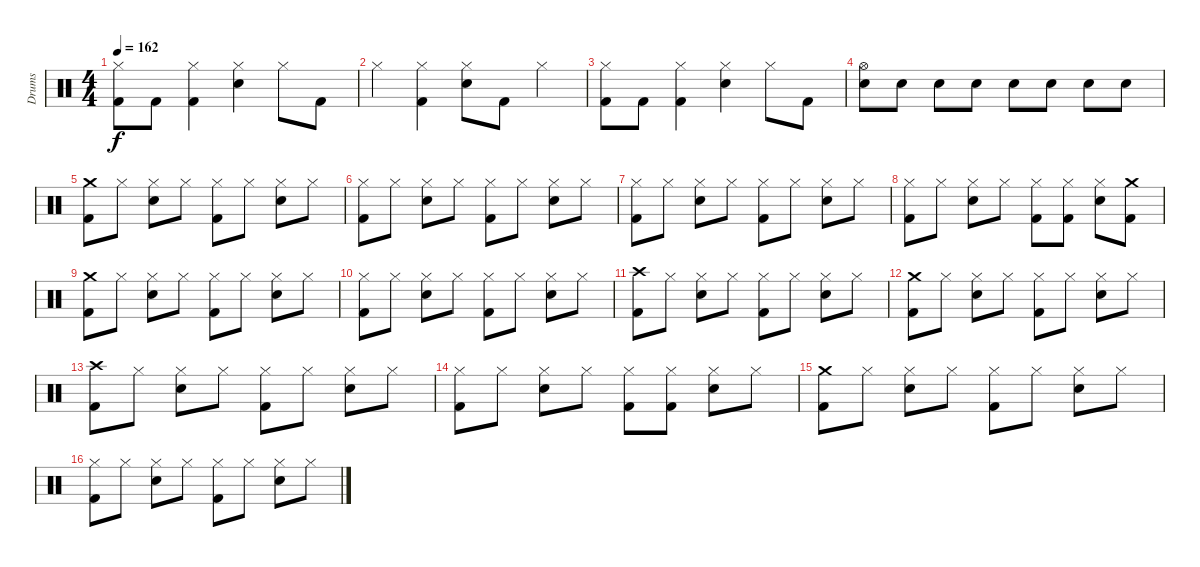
\track ("Drums" "Drums") {instrument percussion}
\staff {score}
\articulation defaults
\ts (4 4)
\tempo 162
\clef neutral
\ks c
("Hi-Hat (closed)" "Kick (hit) 2").8{dy f} "Kick (hit) 2".8 ("Hi-Hat (closed)" "Kick (hit) 2").4 ("Hi-Hat (closed)" "Electric Snare (hit)").4 "Hi-Hat (closed)".8 "Kick (hit) 2".8 |
"Hi-Hat (closed)".4 ("Hi-Hat (closed)" "Kick (hit) 2").4 ("Hi-Hat (closed)" "Electric Snare (hit)").8 "Kick (hit) 2".8 "Hi-Hat (closed)".4 |
("Hi-Hat (closed)" "Kick (hit) 2").8 "Kick (hit) 2".8 ("Hi-Hat (closed)" "Kick (hit) 2").4 ("Hi-Hat (closed)" "Electric Snare (hit)").4 "Hi-Hat (closed)".8 "Kick (hit) 2".8 |
("Hi-Hat (open)" "Electric Snare (hit)").8 "Electric Snare (hit)".8 "Electric Snare (hit)".8 "Electric Snare (hit)".8 "Electric Snare (hit)".8 "Electric Snare (hit)".8 "Electric Snare (hit)".8 "Electric Snare (hit)".8 |
("Crash medium (hit)" "Kick (hit) 2").8 "Hi-Hat (closed)".8 ("Hi-Hat (closed)" "Electric Snare (hit)").8 "Hi-Hat (closed)".8 ("Hi-Hat (closed)" "Kick (hit) 2").8 "Hi-Hat (closed)".8 ("Hi-Hat (closed)" "Electric Snare (hit)").8 "Hi-Hat (closed)".8 |
("Hi-Hat (closed)" "Kick (hit) 2").8 "Hi-Hat (closed)".8 ("Hi-Hat (closed)" "Electric Snare (hit)").8 "Hi-Hat (closed)".8 ("Hi-Hat (closed)" "Kick (hit) 2").8 "Hi-Hat (closed)".8 ("Hi-Hat (closed)" "Electric Snare (hit)").8 "Hi-Hat (closed)".8 |
("Hi-Hat (closed)" "Kick (hit) 2").8 "Hi-Hat (closed)".8 ("Hi-Hat (closed)" "Electric Snare (hit)").8 "Hi-Hat (closed)".8 ("Hi-Hat (closed)" "Kick (hit) 2").8 "Hi-Hat (closed)".8 ("Hi-Hat (closed)" "Electric Snare (hit)").8 "Hi-Hat (closed)".8 |
("Hi-Hat (closed)" "Kick (hit) 2").8 "Hi-Hat (closed)".8 ("Hi-Hat (closed)" "Electric Snare (hit)").8 "Hi-Hat (closed)".8 ("Hi-Hat (closed)" "Kick (hit) 2").8 ("Hi-Hat (closed)" "Kick (hit) 2").8 ("Hi-Hat (closed)" "Electric Snare (hit)").8 ("Crash medium (hit)" "Kick (hit) 2").8 |
("Crash medium (hit)" "Kick (hit) 2").8 "Hi-Hat (closed)".8 ("Hi-Hat (closed)" "Electric Snare (hit)").8 "Hi-Hat (closed)".8 ("Hi-Hat (closed)" "Kick (hit) 2").8 "Hi-Hat (closed)".8 ("Hi-Hat (closed)" "Electric Snare (hit)").8 "Hi-Hat (closed)".8 |
("Hi-Hat (closed)" "Kick (hit) 2").8 "Hi-Hat (closed)".8 ("Hi-Hat (closed)" "Electric Snare (hit)").8 "Hi-Hat (closed)".8 ("Hi-Hat (closed)" "Kick (hit) 2").8 "Hi-Hat (closed)".8 ("Hi-Hat (closed)" "Electric Snare (hit)").8 "Hi-Hat (closed)".8 |
("Crash high (hit)" "Kick (hit) 2").8 "Hi-Hat (closed)".8 ("Hi-Hat (closed)" "Electric Snare (hit)").8 "Hi-Hat (closed)".8 ("Hi-Hat (closed)" "Kick (hit) 2").8 "Hi-Hat (closed)".8 ("Hi-Hat (closed)" "Electric Snare (hit)").8 "Hi-Hat (closed)".8 |
("Crash medium (hit)" "Kick (hit) 2").8 "Hi-Hat (closed)".8 ("Hi-Hat (closed)" "Electric Snare (hit)").8 "Hi-Hat (closed)".8 ("Hi-Hat (closed)" "Kick (hit) 2").8 "Hi-Hat (closed)".8 ("Hi-Hat (closed)" "Electric Snare (hit)").8 "Hi-Hat (closed)".8 |
("Crash high (hit)" "Kick (hit) 2").8 "Hi-Hat (closed)".8 ("Hi-Hat (closed)" "Electric Snare (hit)").8 "Hi-Hat (closed)".8 ("Hi-Hat (closed)" "Kick (hit) 2").8 "Hi-Hat (closed)".8 ("Hi-Hat (closed)" "Electric Snare (hit)").8 "Hi-Hat (closed)".8 |
("Hi-Hat (closed)" "Kick (hit) 2").8 "Hi-Hat (closed)".8 ("Hi-Hat (closed)" "Electric Snare (hit)").8 "Hi-Hat (closed)".8 ("Hi-Hat (closed)" "Kick (hit) 2").8 ("Hi-Hat (closed)" "Kick (hit) 2").8 ("Hi-Hat (closed)" "Electric Snare (hit)").8 "Hi-Hat (closed)".8 |
("Crash medium (hit)" "Kick (hit) 2").8 "Hi-Hat (closed)".8 ("Hi-Hat (closed)" "Electric Snare (hit)").8 "Hi-Hat (closed)".8 ("Hi-Hat (closed)" "Kick (hit) 2").8 "Hi-Hat (closed)".8 ("Hi-Hat (closed)" "Electric Snare (hit)").8 "Hi-Hat (closed)".8 |
("Hi-Hat (closed)" "Kick (hit) 2").8 "Hi-Hat (closed)".8 ("Hi-Hat (closed)" "Electric Snare (hit)").8 "Hi-Hat (closed)".8 ("Hi-Hat (closed)" "Kick (hit) 2").8 "Hi-Hat (closed)".8 ("Hi-Hat (closed)" "Electric Snare (hit)").8 "Hi-Hat (closed)".8
